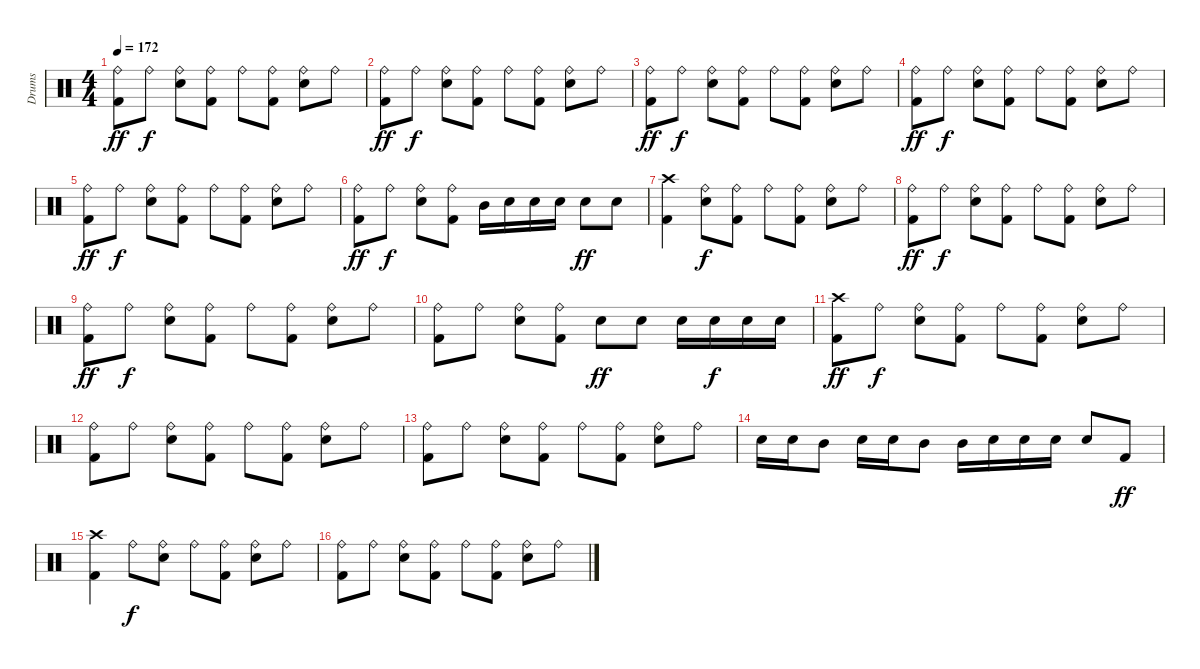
\track ("Drums" "Drums") {instrument percussion}
\staff {score}
\articulation defaults
\ts (4 4)
\tempo 172
\clef neutral
\ks c
("Ride (bell)" "Kick (hit) 2").8{dy ff} "Ride (bell)".8{dy f} ("Ride (bell)" "Electric Snare (hit)").8 ("Ride (bell)" "Kick (hit) 2").8 "Ride (bell)".8 ("Ride (bell)" "Kick (hit) 2").8 ("Ride (bell)" "Electric Snare (hit)").8 "Ride (bell)".8 |
("Ride (bell)" "Kick (hit) 2").8{dy ff} "Ride (bell)".8{dy f} ("Ride (bell)" "Electric Snare (hit)").8 ("Ride (bell)" "Kick (hit) 2").8 "Ride (bell)".8 ("Ride (bell)" "Kick (hit) 2").8 ("Ride (bell)" "Electric Snare (hit)").8 "Ride (bell)".8 |
("Ride (bell)" "Kick (hit) 2").8{dy ff} "Ride (bell)".8{dy f} ("Ride (bell)" "Electric Snare (hit)").8 ("Ride (bell)" "Kick (hit) 2").8 "Ride (bell)".8 ("Ride (bell)" "Kick (hit) 2").8 ("Ride (bell)" "Electric Snare (hit)").8 "Ride (bell)".8 |
("Ride (bell)" "Kick (hit) 2").8{dy ff} "Ride (bell)".8{dy f} ("Ride (bell)" "Electric Snare (hit)").8 ("Ride (bell)" "Kick (hit) 2").8 "Ride (bell)".8 ("Ride (bell)" "Kick (hit) 2").8 ("Ride (bell)" "Electric Snare (hit)").8 "Ride (bell)".8 |
("Ride (bell)" "Kick (hit) 2").8{dy ff} "Ride (bell)".8{dy f} ("Ride (bell)" "Electric Snare (hit)").8 ("Ride (bell)" "Kick (hit) 2").8 "Ride (bell)".8 ("Ride (bell)" "Kick (hit) 2").8 ("Ride (bell)" "Electric Snare (hit)").8 "Ride (bell)".8 |
("Ride (bell)" "Kick (hit) 2").8{dy ff} "Ride (bell)".8{dy f} ("Ride (bell)" "Electric Snare (hit)").8 ("Ride (bell)" "Kick (hit) 2").8 "Mid Tom (hit)".16 "Electric Snare (hit)".16 "Electric Snare (hit)".16 "Electric Snare (hit)".16 "Electric Snare (hit)".8{dy ff} "Electric Snare (hit)".8 |
("Crash high (hit)" "Kick (hit) 2").4 ("Ride (bell)" "Electric Snare (hit)").8{dy f} ("Ride (bell)" "Kick (hit) 2").8 "Ride (bell)".8 ("Ride (bell)" "Kick (hit) 2").8 ("Ride (bell)" "Electric Snare (hit)").8 "Ride (bell)".8 |
("Ride (bell)" "Kick (hit) 2").8{dy ff} "Ride (bell)".8{dy f} ("Ride (bell)" "Electric Snare (hit)").8 ("Ride (bell)" "Kick (hit) 2").8 "Ride (bell)".8 ("Ride (bell)" "Kick (hit) 2").8 ("Ride (bell)" "Electric Snare (hit)").8 "Ride (bell)".8 |
("Ride (bell)" "Kick (hit) 2").8{dy ff} "Ride (bell)".8{dy f} ("Ride (bell)" "Electric Snare (hit)").8 ("Ride (bell)" "Kick (hit) 2").8 "Ride (bell)".8 ("Ride (bell)" "Kick (hit) 2").8 ("Ride (bell)" "Electric Snare (hit)").8 "Ride (bell)".8 |
("Ride (bell)" "Kick (hit) 2").8 "Ride (bell)".8 ("Ride (bell)" "Electric Snare (hit)").8 ("Ride (bell)" "Kick (hit) 2").8 "Electric Snare (hit)".8{dy ff} "Electric Snare (hit)".8 "Electric Snare (hit)".16 "Electric Snare (hit)".16{dy f} "Electric Snare (hit)".16 "Electric Snare (hit)".16 |
("Crash high (hit)" "Kick (hit) 2").8{dy ff} "Ride (bell)".8{dy f} ("Ride (bell)" "Electric Snare (hit)").8 ("Ride (bell)" "Kick (hit) 2").8 "Ride (bell)".8 ("Ride (bell)" "Kick (hit) 2").8 ("Ride (bell)" "Electric Snare (hit)").8 "Ride (bell)".8 |
("Ride (bell)" "Kick (hit) 2").8 "Ride (bell)".8 ("Ride (bell)" "Electric Snare (hit)").8 ("Ride (bell)" "Kick (hit) 2").8 "Ride (bell)".8 ("Ride (bell)" "Kick (hit) 2").8 ("Ride (bell)" "Electric Snare (hit)").8 "Ride (bell)".8 |
("Ride (bell)" "Kick (hit) 2").8 "Ride (bell)".8 ("Ride (bell)" "Electric Snare (hit)").8 ("Ride (bell)" "Kick (hit) 2").8 "Ride (bell)".8 ("Ride (bell)" "Kick (hit) 2").8 ("Ride (bell)" "Electric Snare (hit)").8 "Ride (bell)".8 |
"Electric Snare (hit)".16 "Electric Snare (hit)".16 "Mid Tom (hit)".8 "Electric Snare (hit)".16 "Electric Snare (hit)".16 "Mid Tom (hit)".8 "Mid Tom (hit)".16 "Electric Snare (hit)".16 "Electric Snare (hit)".16 "Electric Snare (hit)".16 "Electric Snare (hit)".8 "Kick (hit) 2".8{dy ff} |
("Crash high (hit)" "Kick (hit) 2").4 "Ride (bell)".8{dy f} ("Ride (bell)" "Electric Snare (hit)").8 "Ride (bell)".8 ("Ride (bell)" "Kick (hit) 2").8 ("Ride (bell)" "Electric Snare (hit)").8 "Ride (bell)".8 |
("Ride (bell)" "Kick (hit) 2").8 "Ride (bell)".8 ("Ride (bell)" "Electric Snare (hit)").8 ("Ride (bell)" "Kick (hit) 2").8 "Ride (bell)".8 ("Ride (bell)" "Kick (hit) 2").8 ("Ride (bell)" "Electric Snare (hit)").8 "Ride (bell)".8
